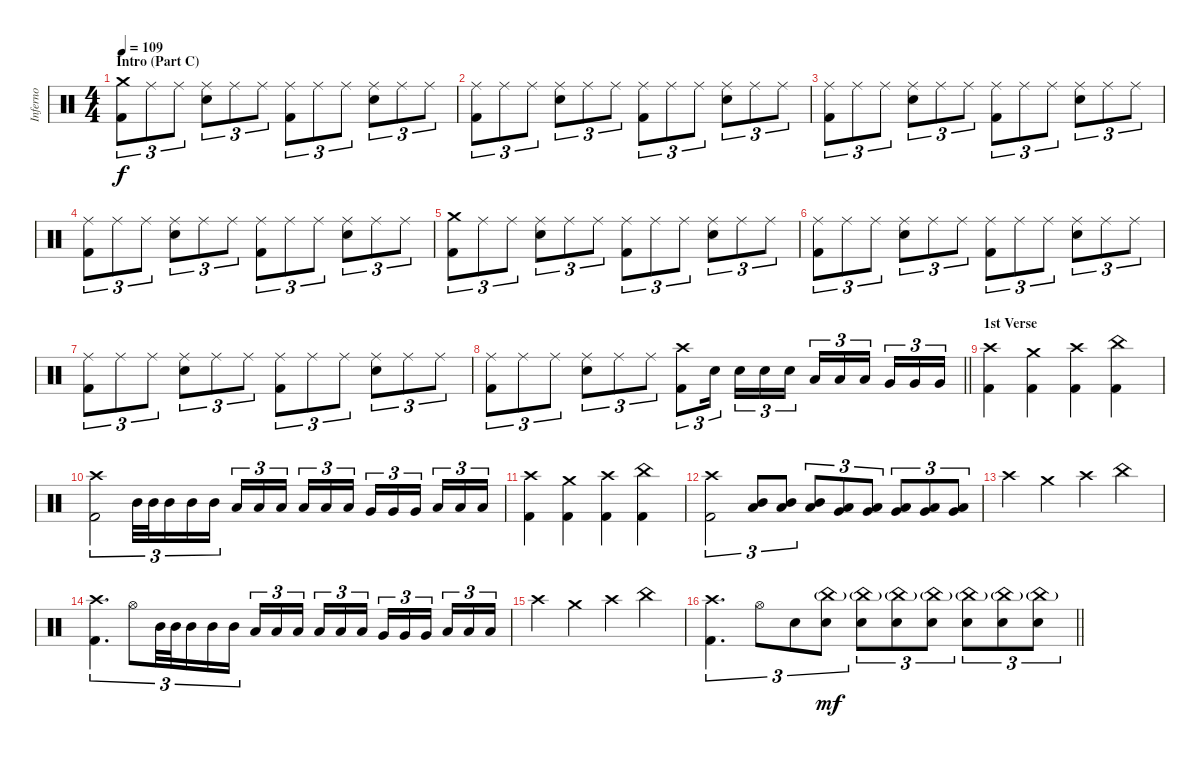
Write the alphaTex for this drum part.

\track ("Inferno" "Inferno") {instrument percussion}
\staff {score}
\articulation defaults
\ts (4 4)
\section ("" "Intro (Part C)")
\tempo 109
\clef neutral
\ks c
("Crash medium (hit)" "Kick (hit) 2").8{tu (3 2) dy f} "Ride (middle)".8{tu (3 2)} "Ride (middle)".8{tu (3 2)} ("Ride (middle)" "Snare (hit) 2").8{tu (3 2)} "Ride (middle)".8{tu (3 2)} "Ride (middle)".8{tu (3 2)} ("Ride (middle)" "Kick (hit) 2").8{tu (3 2)} "Ride (middle)".8{tu (3 2)} "Ride (middle)".8{tu (3 2)} ("Ride (middle)" "Snare (hit) 2").8{tu (3 2)} "Ride (middle)".8{tu (3 2)} "Ride (middle)".8{tu (3 2)} |
("Ride (middle)" "Kick (hit) 2").8{tu (3 2)} "Ride (middle)".8{tu (3 2)} "Ride (middle)".8{tu (3 2)} ("Ride (middle)" "Snare (hit) 2").8{tu (3 2)} "Ride (middle)".8{tu (3 2)} "Ride (middle)".8{tu (3 2)} ("Ride (middle)" "Kick (hit) 2").8{tu (3 2)} "Ride (middle)".8{tu (3 2)} "Ride (middle)".8{tu (3 2)} ("Ride (middle)" "Snare (hit) 2").8{tu (3 2)} "Ride (middle)".8{tu (3 2)} "Ride (middle)".8{tu (3 2)} |
("Ride (middle)" "Kick (hit) 2").8{tu (3 2)} "Ride (middle)".8{tu (3 2)} "Ride (middle)".8{tu (3 2)} ("Ride (middle)" "Snare (hit) 2").8{tu (3 2)} "Ride (middle)".8{tu (3 2)} "Ride (middle)".8{tu (3 2)} ("Ride (middle)" "Kick (hit) 2").8{tu (3 2)} "Ride (middle)".8{tu (3 2)} "Ride (middle)".8{tu (3 2)} ("Ride (middle)" "Snare (hit) 2").8{tu (3 2)} "Ride (middle)".8{tu (3 2)} "Ride (middle)".8{tu (3 2)} |
("Ride (middle)" "Kick (hit) 2").8{tu (3 2)} "Ride (middle)".8{tu (3 2)} "Ride (middle)".8{tu (3 2)} ("Ride (middle)" "Snare (hit) 2").8{tu (3 2)} "Ride (middle)".8{tu (3 2)} "Ride (middle)".8{tu (3 2)} ("Ride (middle)" "Kick (hit) 2").8{tu (3 2)} "Ride (middle)".8{tu (3 2)} "Ride (middle)".8{tu (3 2)} ("Ride (middle)" "Snare (hit) 2").8{tu (3 2)} "Ride (middle)".8{tu (3 2)} "Ride (middle)".8{tu (3 2)} |
("Crash medium (hit)" "Kick (hit) 2").8{tu (3 2)} "Ride (middle)".8{tu (3 2)} "Ride (middle)".8{tu (3 2)} ("Ride (middle)" "Snare (hit) 2").8{tu (3 2)} "Ride (middle)".8{tu (3 2)} "Ride (middle)".8{tu (3 2)} ("Ride (middle)" "Kick (hit) 2").8{tu (3 2)} "Ride (middle)".8{tu (3 2)} "Ride (middle)".8{tu (3 2)} ("Ride (middle)" "Snare (hit) 2").8{tu (3 2)} "Ride (middle)".8{tu (3 2)} "Ride (middle)".8{tu (3 2)} |
("Ride (middle)" "Kick (hit) 2").8{tu (3 2)} "Ride (middle)".8{tu (3 2)} "Ride (middle)".8{tu (3 2)} ("Ride (middle)" "Snare (hit) 2").8{tu (3 2)} "Ride (middle)".8{tu (3 2)} "Ride (middle)".8{tu (3 2)} ("Ride (middle)" "Kick (hit) 2").8{tu (3 2)} "Ride (middle)".8{tu (3 2)} "Ride (middle)".8{tu (3 2)} ("Ride (middle)" "Snare (hit) 2").8{tu (3 2)} "Ride (middle)".8{tu (3 2)} "Ride (middle)".8{tu (3 2)} |
("Ride (middle)" "Kick (hit) 2").8{tu (3 2)} "Ride (middle)".8{tu (3 2)} "Ride (middle)".8{tu (3 2)} ("Ride (middle)" "Snare (hit) 2").8{tu (3 2)} "Ride (middle)".8{tu (3 2)} "Ride (middle)".8{tu (3 2)} ("Ride (middle)" "Kick (hit) 2").8{tu (3 2)} "Ride (middle)".8{tu (3 2)} "Ride (middle)".8{tu (3 2)} ("Ride (middle)" "Snare (hit) 2").8{tu (3 2)} "Ride (middle)".8{tu (3 2)} "Ride (middle)".8{tu (3 2)} |
\barLineRight lightlight
("Ride (middle)" "Kick (hit) 2").8{tu (3 2)} "Ride (middle)".8{tu (3 2)} "Ride (middle)".8{tu (3 2)} ("Ride (middle)" "Snare (hit) 2").8{tu (3 2)} "Ride (middle)".8{tu (3 2)} "Ride (middle)".8{tu (3 2)} ("Crash high (hit)" "Kick (hit) 2").8{tu (3 2)} "Snare (hit) 2".16{tu (3 2) beam splitsecondary} "Snare (hit) 2".16{tu (3 2)} "Snare (hit) 2".16{tu (3 2)} "Snare (hit) 2".16{tu (3 2)} "Low Tom (hit)".16{tu (3 2)} "Low Tom (hit)".16{tu (3 2)} "Low Tom (hit)".16{tu (3 2) beam splitsecondary} "Very Low Tom (hit)".16{tu (3 2)} "Very Low Tom (hit)".16{tu (3 2)} "Very Low Tom (hit)".16{tu (3 2)} |
\section ("" "1st Verse")
("Crash high (hit)" "Kick (hit) 2").4 ("Crash medium (hit)" "Kick (hit) 2").4 ("Crash high (hit)" "Kick (hit) 2").4 ("China (hit)" "Kick (hit) 2").4 |
("Crash high (hit)" "Kick (hit) 2").2{tu (3 2)} "Mid Tom (hit)".32{tu (3 2)} "Mid Tom (hit)".32{tu (3 2)} "Mid Tom (hit)".16{tu (3 2)} "Mid Tom (hit)".16{tu (3 2)} "Mid Tom (hit)".16{tu (3 2)} "Low Tom (hit)".16{tu (3 2)} "Low Tom (hit)".16{tu (3 2)} "Low Tom (hit)".16{tu (3 2) beam splitsecondary} "Low Tom (hit)".16{tu (3 2)} "Low Tom (hit)".16{tu (3 2)} "Low Tom (hit)".16{tu (3 2)} "Very Low Tom (hit)".16{tu (3 2)} "Very Low Tom (hit)".16{tu (3 2)} "Very Low Tom (hit)".16{tu (3 2) beam splitsecondary} "Low Floor Tom (hit)".16{tu (3 2)} "Low Floor Tom (hit)".16{tu (3 2)} "Low Floor Tom (hit)".16{tu (3 2)} |
("Crash high (hit)" "Kick (hit) 2").4 ("Crash medium (hit)" "Kick (hit) 2").4 ("Crash high (hit)" "Kick (hit) 2").4 ("China (hit)" "Kick (hit) 2").4 |
("Crash high (hit)" "Kick (hit) 2").2{tu (3 2)} ("Mid Tom (hit)" "Low Tom (hit)").8{tu (3 2)} ("Mid Tom (hit)" "Low Tom (hit)").8{tu (3 2)} ("Mid Tom (hit)" "Low Tom (hit)").8{tu (3 2)} ("Low Tom (hit)" "Very Low Tom (hit)").8{tu (3 2)} ("Low Tom (hit)" "Very Low Tom (hit)").8{tu (3 2)} ("Low Tom (hit)" "Very Low Tom (hit)").8{tu (3 2)} ("Very Low Tom (hit)" "Low Floor Tom (hit)").8{tu (3 2)} ("Very Low Tom (hit)" "Low Floor Tom (hit)").8{tu (3 2)} |
"Crash high (hit)".4 "Crash medium (hit)".4 "Crash high (hit)".4 "China (hit)".4 |
("Crash high (hit)" "Kick (hit) 2").4{d tu (3 2)} "Hi-Hat (open)".8{tu (3 2)} "Mid Tom (hit)".32{tu (3 2)} "Mid Tom (hit)".32{tu (3 2) beam splitsecondary} "Mid Tom (hit)".16{tu (3 2)} "Mid Tom (hit)".16{tu (3 2)} "Mid Tom (hit)".16{tu (3 2)} "Low Tom (hit)".16{tu (3 2)} "Low Tom (hit)".16{tu (3 2)} "Low Tom (hit)".16{tu (3 2) beam splitsecondary} "Low Tom (hit)".16{tu (3 2)} "Low Tom (hit)".16{tu (3 2)} "Low Tom (hit)".16{tu (3 2)} "Very Low Tom (hit)".16{tu (3 2)} "Very Low Tom (hit)".16{tu (3 2)} "Very Low Tom (hit)".16{tu (3 2) beam splitsecondary} "Low Floor Tom (hit)".16{tu (3 2)} "Low Floor Tom (hit)".16{tu (3 2)} "Low Floor Tom (hit)".16{tu (3 2)} |
"Crash high (hit)".4 "Crash medium (hit)".4 "Crash high (hit)".4 "China (hit)".4 |
\barLineRight lightlight
("Crash high (hit)" "Kick (hit) 2").4{d tu (3 2)} "Hi-Hat (open)".8{tu (3 2)} "Snare (hit) 2".8{tu (3 2)} ("China (hit)"{g} "Snare (hit) 2").8{tu (3 2) dy mf} ("China (hit)"{g} "Snare (hit) 2").8{tu (3 2)} ("China (hit)"{g} "Snare (hit) 2").8{tu (3 2)} ("China (hit)"{g} "Snare (hit) 2").8{tu (3 2)} ("China (hit)"{g} "Snare (hit) 2").8{tu (3 2)} ("China (hit)"{g} "Snare (hit) 2").8{tu (3 2)} ("China (hit)"{g} "Snare (hit) 2").8{tu (3 2)}
